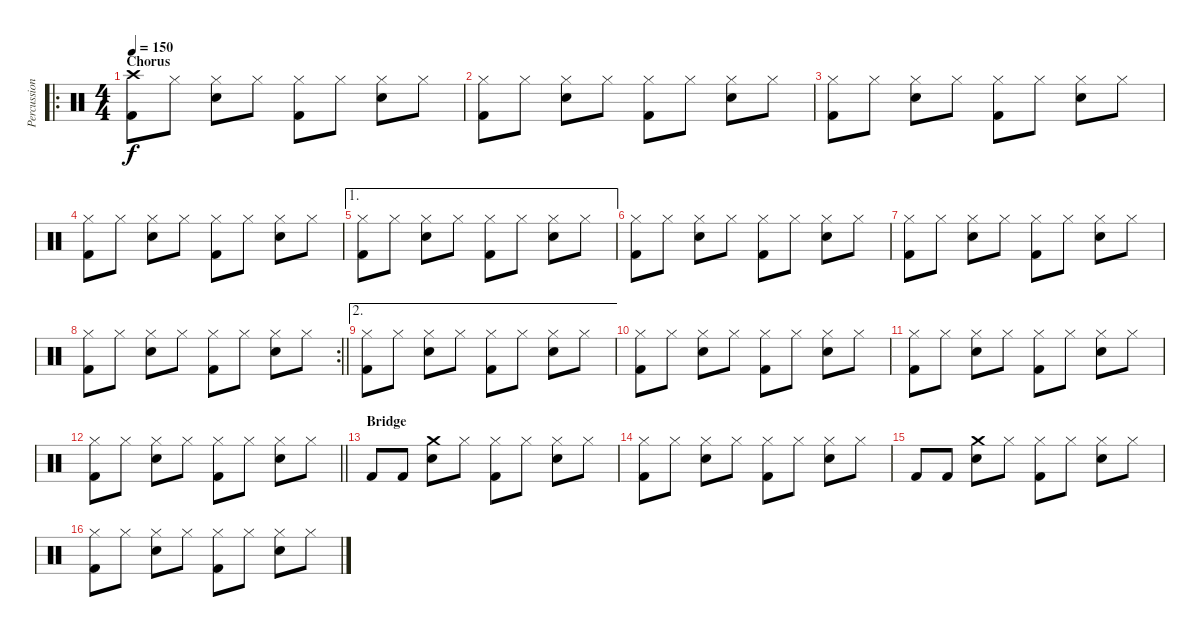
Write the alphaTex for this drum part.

\track ("Percussion" "Percussion") {instrument percussion}
\staff {score}
\articulation defaults
\ro
\ts (4 4)
\section ("" "Chorus")
\tempo 150
\clef neutral
\ks c
("Crash high (hit)" "Kick (hit) 2").8{dy f} "Hi-Hat (closed)".8 ("Hi-Hat (closed)" "Snare (hit) 2").8 "Hi-Hat (closed)".8 ("Hi-Hat (closed)" "Kick (hit) 2").8 "Hi-Hat (closed)".8 ("Hi-Hat (closed)" "Snare (hit) 2").8 "Hi-Hat (closed)".8 |
("Hi-Hat (closed)" "Kick (hit) 2").8 "Hi-Hat (closed)".8 ("Hi-Hat (closed)" "Snare (hit) 2").8 "Hi-Hat (closed)".8 ("Hi-Hat (closed)" "Kick (hit) 2").8 "Hi-Hat (closed)".8 ("Hi-Hat (closed)" "Snare (hit) 2").8 "Hi-Hat (closed)".8 |
("Hi-Hat (closed)" "Kick (hit) 2").8 "Hi-Hat (closed)".8 ("Hi-Hat (closed)" "Snare (hit) 2").8 "Hi-Hat (closed)".8 ("Hi-Hat (closed)" "Kick (hit) 2").8 "Hi-Hat (closed)".8 ("Hi-Hat (closed)" "Snare (hit) 2").8 "Hi-Hat (closed)".8 |
("Hi-Hat (closed)" "Kick (hit) 2").8 "Hi-Hat (closed)".8 ("Hi-Hat (closed)" "Snare (hit) 2").8 "Hi-Hat (closed)".8 ("Hi-Hat (closed)" "Kick (hit) 2").8 "Hi-Hat (closed)".8 ("Hi-Hat (closed)" "Snare (hit) 2").8 "Hi-Hat (closed)".8 |
\ae 1
("Hi-Hat (closed)" "Kick (hit) 2").8 "Hi-Hat (closed)".8 ("Hi-Hat (closed)" "Snare (hit) 2").8 "Hi-Hat (closed)".8 ("Hi-Hat (closed)" "Kick (hit) 2").8 "Hi-Hat (closed)".8 ("Hi-Hat (closed)" "Snare (hit) 2").8 "Hi-Hat (closed)".8 |
("Hi-Hat (closed)" "Kick (hit) 2").8 "Hi-Hat (closed)".8 ("Hi-Hat (closed)" "Snare (hit) 2").8 "Hi-Hat (closed)".8 ("Hi-Hat (closed)" "Kick (hit) 2").8 "Hi-Hat (closed)".8 ("Hi-Hat (closed)" "Snare (hit) 2").8 "Hi-Hat (closed)".8 |
("Hi-Hat (closed)" "Kick (hit) 2").8 "Hi-Hat (closed)".8 ("Hi-Hat (closed)" "Snare (hit) 2").8 "Hi-Hat (closed)".8 ("Hi-Hat (closed)" "Kick (hit) 2").8 "Hi-Hat (closed)".8 ("Hi-Hat (closed)" "Snare (hit) 2").8 "Hi-Hat (closed)".8 |
\rc 2
\barLineRight lightlight
("Hi-Hat (closed)" "Kick (hit) 2").8 "Hi-Hat (closed)".8 ("Hi-Hat (closed)" "Snare (hit) 2").8 "Hi-Hat (closed)".8 ("Hi-Hat (closed)" "Kick (hit) 2").8 "Hi-Hat (closed)".8 ("Hi-Hat (closed)" "Snare (hit) 2").8 "Hi-Hat (closed)".8 |
\ae 2
("Hi-Hat (closed)" "Kick (hit) 2").8 "Hi-Hat (closed)".8 ("Hi-Hat (closed)" "Snare (hit) 2").8 "Hi-Hat (closed)".8 ("Hi-Hat (closed)" "Kick (hit) 2").8 "Hi-Hat (closed)".8 ("Hi-Hat (closed)" "Snare (hit) 2").8 "Hi-Hat (closed)".8 |
("Hi-Hat (closed)" "Kick (hit) 2").8 "Hi-Hat (closed)".8 ("Hi-Hat (closed)" "Snare (hit) 2").8 "Hi-Hat (closed)".8 ("Hi-Hat (closed)" "Kick (hit) 2").8 "Hi-Hat (closed)".8 ("Hi-Hat (closed)" "Snare (hit) 2").8 "Hi-Hat (closed)".8 |
("Hi-Hat (closed)" "Kick (hit) 2").8 "Hi-Hat (closed)".8 ("Hi-Hat (closed)" "Snare (hit) 2").8 "Hi-Hat (closed)".8 ("Hi-Hat (closed)" "Kick (hit) 2").8 "Hi-Hat (closed)".8 ("Hi-Hat (closed)" "Snare (hit) 2").8 "Hi-Hat (closed)".8 |
\barLineRight lightlight
("Hi-Hat (closed)" "Kick (hit) 2").8 "Hi-Hat (closed)".8 ("Hi-Hat (closed)" "Snare (hit) 2").8 "Hi-Hat (closed)".8 ("Hi-Hat (closed)" "Kick (hit) 2").8 "Hi-Hat (closed)".8 ("Hi-Hat (closed)" "Snare (hit) 2").8 "Hi-Hat (closed)".8 |
\section ("" "Bridge")
"Kick (hit) 2".8 "Kick (hit) 2".8 ("Crash medium (hit)" "Snare (hit) 2").8 "Hi-Hat (closed)".8 ("Hi-Hat (closed)" "Kick (hit) 2").8 "Hi-Hat (closed)".8 ("Hi-Hat (closed)" "Snare (hit) 2").8 "Hi-Hat (closed)".8 |
("Hi-Hat (closed)" "Kick (hit) 2").8 "Hi-Hat (closed)".8 ("Hi-Hat (closed)" "Snare (hit) 2").8 "Hi-Hat (closed)".8 ("Hi-Hat (closed)" "Kick (hit) 2").8 "Hi-Hat (closed)".8 ("Hi-Hat (closed)" "Snare (hit) 2").8 "Hi-Hat (closed)".8 |
"Kick (hit) 2".8 "Kick (hit) 2".8 ("Crash medium (hit)" "Snare (hit) 2").8 "Hi-Hat (closed)".8 ("Hi-Hat (closed)" "Kick (hit) 2").8 "Hi-Hat (closed)".8 ("Hi-Hat (closed)" "Snare (hit) 2").8 "Hi-Hat (closed)".8 |
("Hi-Hat (closed)" "Kick (hit) 2").8 "Hi-Hat (closed)".8 ("Hi-Hat (closed)" "Snare (hit) 2").8 "Hi-Hat (closed)".8 ("Hi-Hat (closed)" "Kick (hit) 2").8 "Hi-Hat (closed)".8 ("Hi-Hat (closed)" "Snare (hit) 2").8 "Hi-Hat (closed)".8
